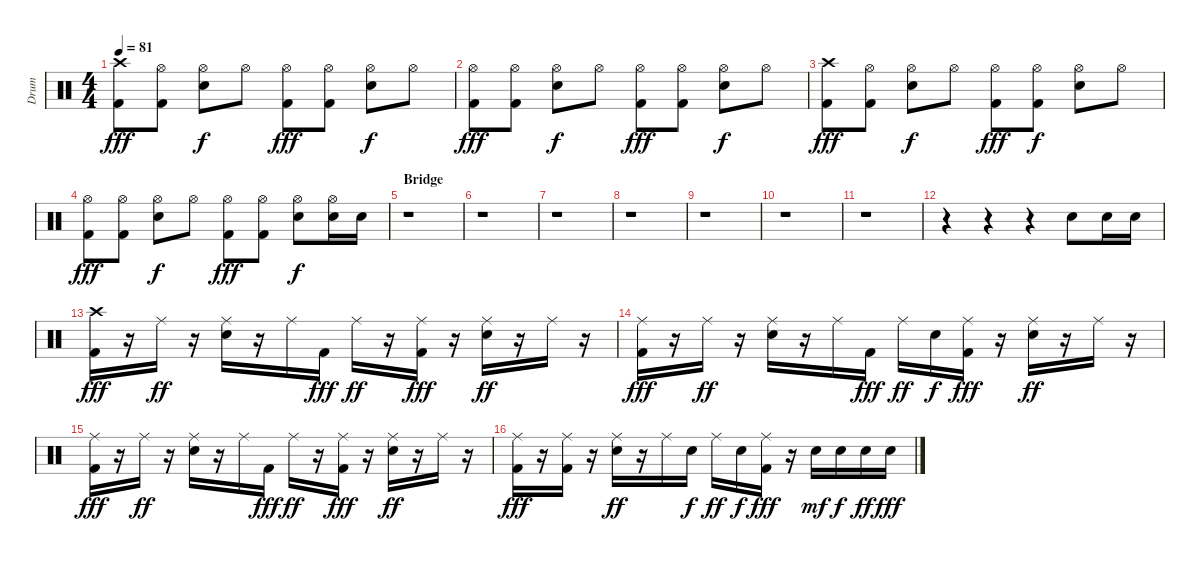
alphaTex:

\track ("Drum" "Drum") {instrument percussion}
\staff {score}
\articulation defaults
\ts (4 4)
\tempo 81
\clef neutral
\ks c
("Crash high (hit)" "Kick (hit) 2").8{dy fff} ("Hi-Hat (open)" "Kick (hit) 2").8 ("Hi-Hat (open)" "Electric Snare (hit)").8{dy f} "Hi-Hat (open)".8 ("Hi-Hat (open)" "Kick (hit) 2").8{dy fff} ("Hi-Hat (open)" "Kick (hit) 2").8 ("Hi-Hat (open)" "Electric Snare (hit)").8{dy f} "Hi-Hat (open)".8 |
("Hi-Hat (open)" "Kick (hit) 2").8{dy fff} ("Hi-Hat (open)" "Kick (hit) 2").8 ("Hi-Hat (open)" "Electric Snare (hit)").8{dy f} "Hi-Hat (open)".8 ("Hi-Hat (open)" "Kick (hit) 2").8{dy fff} ("Hi-Hat (open)" "Kick (hit) 2").8 ("Hi-Hat (open)" "Electric Snare (hit)").8{dy f} "Hi-Hat (open)".8 |
("Crash high (hit)" "Kick (hit) 2").8{dy fff} ("Hi-Hat (open)" "Kick (hit) 2").8 ("Hi-Hat (open)" "Electric Snare (hit)").8{dy f} "Hi-Hat (open)".8 ("Hi-Hat (open)" "Kick (hit) 2").8{dy fff} ("Hi-Hat (open)" "Kick (hit) 2").8{dy f} ("Hi-Hat (open)" "Electric Snare (hit)").8 "Hi-Hat (open)".8 |
("Hi-Hat (open)" "Kick (hit) 2").8{dy fff} ("Hi-Hat (open)" "Kick (hit) 2").8 ("Hi-Hat (open)" "Electric Snare (hit)").8{dy f} "Hi-Hat (open)".8 ("Hi-Hat (open)" "Kick (hit) 2").8{dy fff} ("Hi-Hat (open)" "Kick (hit) 2").8 ("Hi-Hat (open)" "Electric Snare (hit)").8{dy f} ("Hi-Hat (open)" "Electric Snare (hit)").16 "Electric Snare (hit)".16 |
\section ("" "Bridge ")
r.1 |
r.1 |
r.1 |
r.1 |
r.1 |
r.1 |
r.1 |
r.4 r.4 r.4 "Electric Snare (hit)".8 "Electric Snare (hit)".16 "Electric Snare (hit)".16 |
("Crash high (hit)" "Kick (hit) 2").16{dy fff} r.16 "Ride (middle)".16{dy ff} r.16 ("Ride (middle)" "Electric Snare (hit)").16 r.16 "Ride (middle)".16 "Kick (hit) 2".16{dy fff} "Ride (middle)".16{dy ff} r.16 ("Ride (middle)" "Kick (hit) 2").16{dy fff} r.16 ("Ride (middle)" "Electric Snare (hit)").16{dy ff} r.16 "Ride (middle)".16 r.16 |
("Ride (middle)" "Kick (hit) 2").16{dy fff} r.16 "Ride (middle)".16{dy ff} r.16 ("Ride (middle)" "Electric Snare (hit)").16 r.16 "Ride (middle)".16 "Kick (hit) 2".16{dy fff} "Ride (middle)".16{dy ff} "Electric Snare (hit)".16{dy f} ("Ride (middle)" "Kick (hit) 2").16{dy fff} r.16 ("Ride (middle)" "Electric Snare (hit)").16{dy ff} r.16 "Ride (middle)".16 r.16 |
("Ride (middle)" "Kick (hit) 2").16{dy fff} r.16 "Ride (middle)".16{dy ff} r.16 ("Ride (middle)" "Electric Snare (hit)").16 r.16 "Ride (middle)".16 "Kick (hit) 2".16{dy fff} "Ride (middle)".16{dy ff} r.16 ("Ride (middle)" "Kick (hit) 2").16{dy fff} r.16 ("Ride (middle)" "Electric Snare (hit)").16{dy ff} r.16 "Ride (middle)".16 r.16 |
("Ride (middle)" "Kick (hit) 2").16{dy fff} r.16 ("Ride (middle)" "Kick (hit) 2").16 r.16 ("Ride (middle)" "Electric Snare (hit)").16{dy ff} r.16 "Ride (middle)".16 "Electric Snare (hit)".16{dy f} "Ride (middle)".16{dy ff} "Electric Snare (hit)".16{dy f} ("Ride (middle)" "Kick (hit) 2").16{dy fff} r.16 "Electric Snare (hit)".16{dy mf} "Electric Snare (hit)".16{dy f} "Electric Snare (hit)".16{dy ff} "Electric Snare (hit)".16{dy fff}
